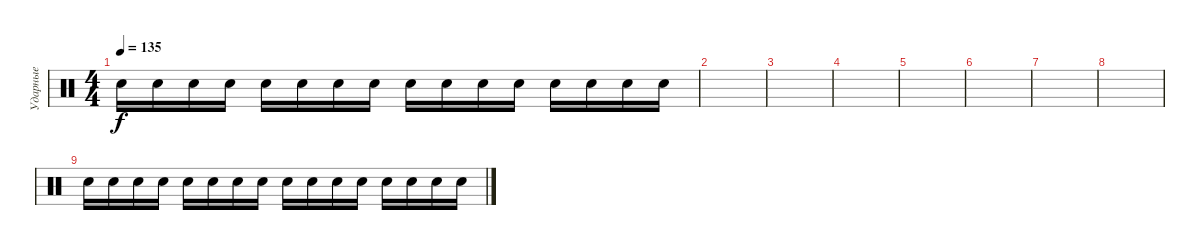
\track ("Ударные" "Ударные") {instrument percussion}
\staff {score}
\articulation defaults
\ts (4 4)
\tempo 135
\clef neutral
\ks c "Electric Snare (hit)".16{dy f} "Electric Snare (hit)".16 "Electric Snare (hit)".16 "Electric Snare (hit)".16 "Electric Snare (hit)".16 "Electric Snare (hit)".16 "Electric Snare (hit)".16 "Electric Snare (hit)".16 "Electric Snare (hit)".16 "Electric Snare (hit)".16 "Electric Snare (hit)".16 "Electric Snare (hit)".16 "Electric Snare (hit)".16 "Electric Snare (hit)".16 "Electric Snare (hit)".16 "Electric Snare (hit)".16
|
|
|
|
|
|
|
|
"Electric Snare (hit)".16 "Electric Snare (hit)".16 "Electric Snare (hit)".16 "Electric Snare (hit)".16 "Electric Snare (hit)".16 "Electric Snare (hit)".16 "Electric Snare (hit)".16 "Electric Snare (hit)".16 "Electric Snare (hit)".16 "Electric Snare (hit)".16 "Electric Snare (hit)".16 "Electric Snare (hit)".16 "Electric Snare (hit)".16 "Electric Snare (hit)".16 "Electric Snare (hit)".16 "Electric Snare (hit)".16
